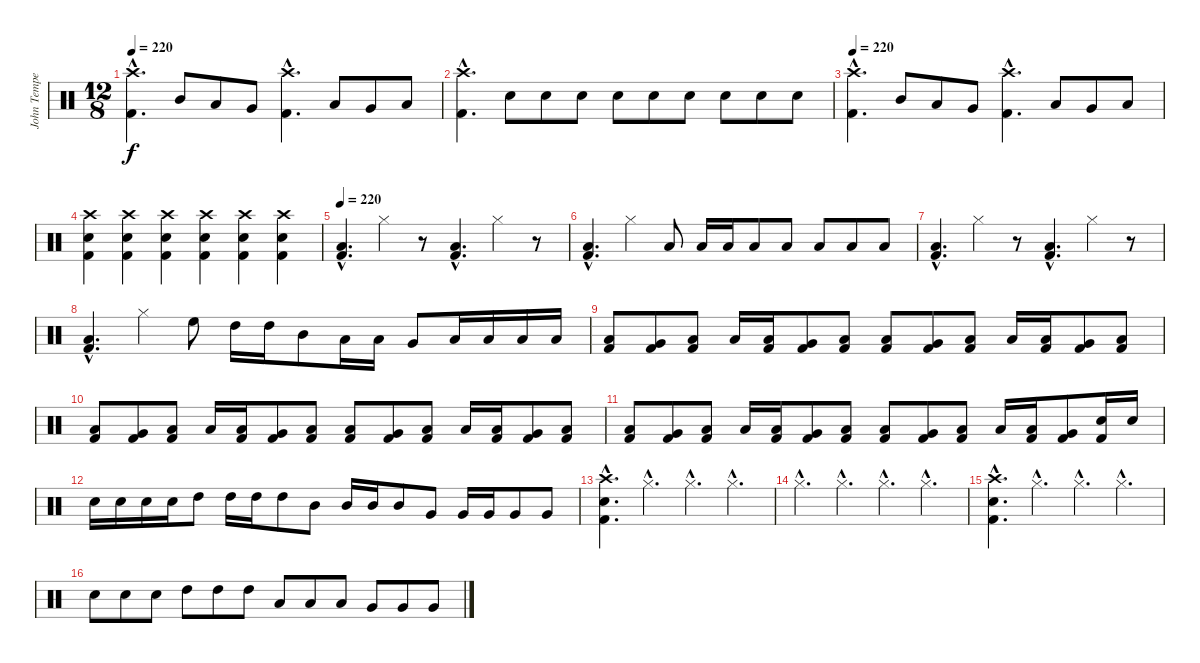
\track ("John Tempesta" "John Tempe") {instrument percussion}
\staff {score}
\articulation defaults
\ts (12 8)
\tempo 220
\clef neutral
\ks c
("Crash high (hit)"{hac} "Kick (hit) 2"{hac}).4{d dy f} "Mid Tom (hit)".8 "Low Tom (hit)".8 "Very Low Tom (hit)".8 ("Crash high (hit)"{hac} "Kick (hit) 2"{hac}).4{d} "Low Tom (hit)".8 "Very Low Tom (hit)".8 "Low Floor Tom (hit)".8 |
("Crash high (hit)"{hac} "Kick (hit) 2"{hac}).4{d} "Electric Snare (hit)".8 "Electric Snare (hit)".8 "Electric Snare (hit)".8 "Electric Snare (hit)".8 "Electric Snare (hit)".8 "Electric Snare (hit)".8 "Electric Snare (hit)".8 "Electric Snare (hit)".8 "Electric Snare (hit)".8 |
\tempo 220
("Crash high (hit)"{hac} "Kick (hit) 2"{hac}).4{d} "Mid Tom (hit)".8 "Low Tom (hit)".8 "Very Low Tom (hit)".8 ("Crash high (hit)"{hac} "Kick (hit) 2"{hac}).4{d} "Low Tom (hit)".8 "Very Low Tom (hit)".8 "Low Floor Tom (hit)".8 |
("Crash high (hit)" "Electric Snare (hit)" "Kick (hit) 2").4 ("Crash high (hit)" "Electric Snare (hit)" "Kick (hit) 2").4 ("Crash high (hit)" "Electric Snare (hit)" "Kick (hit) 2").4 ("Crash high (hit)" "Electric Snare (hit)" "Kick (hit) 2").4 ("Crash high (hit)" "Electric Snare (hit)" "Kick (hit) 2").4 ("Crash high (hit)" "Electric Snare (hit)" "Kick (hit) 2").4 |
\tempo 220
("Low Floor Tom (hit)"{hac} "Kick (hit) 2"{hac}).4{d} "Hi-Hat (closed)".4 r.8 ("Low Floor Tom (hit)"{hac} "Kick (hit) 2"{hac}).4{d} "Hi-Hat (closed)".4 r.8 |
("Low Floor Tom (hit)"{hac} "Kick (hit) 2"{hac}).4{d} "Hi-Hat (closed)".4 "Low Floor Tom (hit)".8 "Low Floor Tom (hit)".16 "Low Floor Tom (hit)".16 "Low Floor Tom (hit)".8 "Low Floor Tom (hit)".8 "Low Floor Tom (hit)".8 "Low Floor Tom (hit)".8 "Low Floor Tom (hit)".8 |
("Low Floor Tom (hit)"{hac} "Kick (hit) 2"{hac}).4{d} "Hi-Hat (closed)".4 r.8 ("Low Floor Tom (hit)"{hac} "Kick (hit) 2"{hac}).4{d} "Hi-Hat (closed)".4 r.8 |
("Low Floor Tom (hit)"{hac} "Kick (hit) 2"{hac}).4{d} "Hi-Hat (closed)".4 "High Floor Tom (hit)".8 "High Tom (hit)".16 "High Tom (hit)".16 "Mid Tom (hit)".8 "Low Tom (hit)".16 "Low Tom (hit)".16 "Very Low Tom (hit)".8 "Low Floor Tom (hit)".16 "Low Floor Tom (hit)".16 "Low Floor Tom (hit)".16 "Low Floor Tom (hit)".16 |
("Low Tom (hit)" "Kick (hit) 2").8 ("Very Low Tom (hit)" "Kick (hit) 2").8 ("Low Tom (hit)" "Kick (hit) 2").8 "Low Tom (hit)".16 ("Low Tom (hit)" "Kick (hit) 2").16 ("Very Low Tom (hit)" "Kick (hit) 2").8 ("Low Floor Tom (hit)" "Kick (hit) 2").8 ("Low Tom (hit)" "Kick (hit) 2").8 ("Very Low Tom (hit)" "Kick (hit) 2").8 ("Low Tom (hit)" "Kick (hit) 2").8 "Low Tom (hit)".16 ("Low Tom (hit)" "Kick (hit) 2").16 ("Very Low Tom (hit)" "Kick (hit) 2").8 ("Low Floor Tom (hit)" "Kick (hit) 2").8 |
("Low Tom (hit)" "Kick (hit) 2").8 ("Very Low Tom (hit)" "Kick (hit) 2").8 ("Low Tom (hit)" "Kick (hit) 2").8 "Low Tom (hit)".16 ("Low Tom (hit)" "Kick (hit) 2").16 ("Very Low Tom (hit)" "Kick (hit) 2").8 ("Low Floor Tom (hit)" "Kick (hit) 2").8 ("Low Tom (hit)" "Kick (hit) 2").8 ("Very Low Tom (hit)" "Kick (hit) 2").8 ("Low Tom (hit)" "Kick (hit) 2").8 "Low Tom (hit)".16 ("Low Tom (hit)" "Kick (hit) 2").16 ("Very Low Tom (hit)" "Kick (hit) 2").8 ("Low Floor Tom (hit)" "Kick (hit) 2").8 |
("Low Tom (hit)" "Kick (hit) 2").8 ("Very Low Tom (hit)" "Kick (hit) 2").8 ("Low Tom (hit)" "Kick (hit) 2").8 "Low Tom (hit)".16 ("Low Tom (hit)" "Kick (hit) 2").16 ("Very Low Tom (hit)" "Kick (hit) 2").8 ("Low Floor Tom (hit)" "Kick (hit) 2").8 ("Low Tom (hit)" "Kick (hit) 2").8 ("Very Low Tom (hit)" "Kick (hit) 2").8 ("Low Tom (hit)" "Kick (hit) 2").8 "Low Tom (hit)".16 ("Low Tom (hit)" "Kick (hit) 2").16 ("Very Low Tom (hit)" "Kick (hit) 2").8 ("Electric Snare (hit)" "Kick (hit) 2").16 "Electric Snare (hit)".16 |
"Electric Snare (hit)".16 "Electric Snare (hit)".16 "Electric Snare (hit)".16 "Electric Snare (hit)".16 "High Tom (hit)".8 "High Tom (hit)".16 "High Tom (hit)".16 "High Tom (hit)".8 "Mid Tom (hit)".8 "Mid Tom (hit)".16 "Mid Tom (hit)".16 "Mid Tom (hit)".8 "Very Low Tom (hit)".8 "Very Low Tom (hit)".16 "Very Low Tom (hit)".16 "Very Low Tom (hit)".8 "Very Low Tom (hit)".8 |
("Crash high (hit)"{hac} "Electric Snare (hit)"{hac} "Kick (hit) 2"{hac}).4{d} "Hi-Hat (closed)"{hac}.4{d} "Hi-Hat (closed)"{hac}.4{d} "Hi-Hat (closed)"{hac}.4{d} |
"Hi-Hat (closed)"{hac}.4{d} "Hi-Hat (closed)"{hac}.4{d} "Hi-Hat (closed)"{hac}.4{d} "Hi-Hat (closed)"{hac}.4{d} |
("Crash high (hit)"{hac} "Electric Snare (hit)"{hac} "Kick (hit) 2"{hac}).4{d} "Hi-Hat (closed)"{hac}.4{d} "Hi-Hat (closed)"{hac}.4{d} "Hi-Hat (closed)"{hac}.4{d} |
"Electric Snare (hit)".8 "Electric Snare (hit)".8 "Electric Snare (hit)".8 "High Tom (hit)".8 "High Tom (hit)".8 "High Tom (hit)".8 "Low Tom (hit)".8 "Low Tom (hit)".8 "Low Tom (hit)".8 "Very Low Tom (hit)".8 "Very Low Tom (hit)".8 "Very Low Tom (hit)".8
